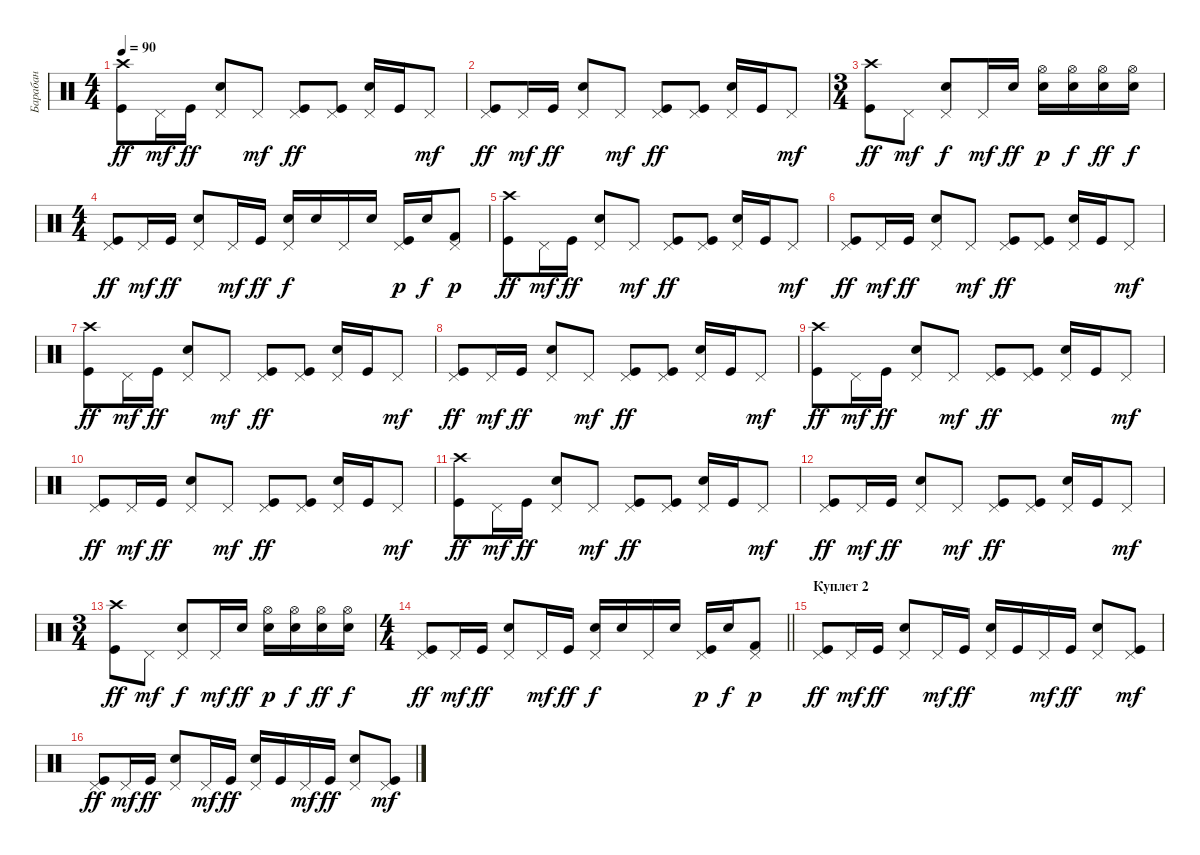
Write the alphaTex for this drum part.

\track ("Барабан" "Барабан") {instrument percussion}
\staff {score}
\articulation defaults
\ts (4 4)
\tempo 90
\clef neutral
\ks c
("Crash high (hit)" "Kick (hit)").8{dy ff} "Pedal Hi-Hat (hit)".16{dy mf} "Kick (hit)".16{dy ff} ("Pedal Hi-Hat (hit)" "Snare (hit) 2").8 "Pedal Hi-Hat (hit)".8{dy mf} ("Pedal Hi-Hat (hit)" "Kick (hit)").8{dy ff} ("Pedal Hi-Hat (hit)" "Kick (hit)").8 ("Pedal Hi-Hat (hit)" "Snare (hit) 2").16 "Kick (hit)".16 "Pedal Hi-Hat (hit)".8{dy mf} |
("Pedal Hi-Hat (hit)" "Kick (hit)").8{dy ff} "Pedal Hi-Hat (hit)".16{dy mf} "Kick (hit)".16{dy ff} ("Pedal Hi-Hat (hit)" "Snare (hit) 2").8 "Pedal Hi-Hat (hit)".8{dy mf} ("Pedal Hi-Hat (hit)" "Kick (hit)").8{dy ff} ("Pedal Hi-Hat (hit)" "Kick (hit)").8 ("Pedal Hi-Hat (hit)" "Snare (hit) 2").16 "Kick (hit)".16 "Pedal Hi-Hat (hit)".8{dy mf} |
\ts (3 4)
("Crash high (hit)" "Kick (hit)").8{dy ff} "Pedal Hi-Hat (hit)".8{dy mf} ("Pedal Hi-Hat (hit)" "Snare (hit) 2").8{dy f} "Pedal Hi-Hat (hit)".16{dy mf} "Snare (hit) 2".16{dy ff} ("Hi-Hat (open)" "Snare (hit) 2").16{dy p} ("Hi-Hat (open)" "Snare (hit) 2").16{dy f} ("Hi-Hat (open)" "Snare (hit) 2").16{dy ff} ("Hi-Hat (open)" "Snare (hit) 2").16{dy f} |
\ts (4 4)
("Pedal Hi-Hat (hit)" "Kick (hit)").8{dy ff} "Pedal Hi-Hat (hit)".16{dy mf} "Kick (hit)".16{dy ff} ("Pedal Hi-Hat (hit)" "Snare (hit) 2").8 "Pedal Hi-Hat (hit)".16{dy mf} "Kick (hit)".16{dy ff} ("Pedal Hi-Hat (hit)" "Snare (hit) 2").16{dy f} "Snare (hit) 2".16 "Pedal Hi-Hat (hit)".16 "Snare (hit) 2".16 ("Pedal Hi-Hat (hit)" "Kick (hit)").16{dy p} "Snare (hit) 2".16{dy f} ("Pedal Hi-Hat (hit)" "Kick (hit) 2").8{dy p} |
("Crash high (hit)" "Kick (hit)").8{dy ff} "Pedal Hi-Hat (hit)".16{dy mf} "Kick (hit)".16{dy ff} ("Pedal Hi-Hat (hit)" "Snare (hit) 2").8 "Pedal Hi-Hat (hit)".8{dy mf} ("Pedal Hi-Hat (hit)" "Kick (hit)").8{dy ff} ("Pedal Hi-Hat (hit)" "Kick (hit)").8 ("Pedal Hi-Hat (hit)" "Snare (hit) 2").16 "Kick (hit)".16 "Pedal Hi-Hat (hit)".8{dy mf} |
("Pedal Hi-Hat (hit)" "Kick (hit)").8{dy ff} "Pedal Hi-Hat (hit)".16{dy mf} "Kick (hit)".16{dy ff} ("Pedal Hi-Hat (hit)" "Snare (hit) 2").8 "Pedal Hi-Hat (hit)".8{dy mf} ("Pedal Hi-Hat (hit)" "Kick (hit)").8{dy ff} ("Pedal Hi-Hat (hit)" "Kick (hit)").8 ("Pedal Hi-Hat (hit)" "Snare (hit) 2").16 "Kick (hit)".16 "Pedal Hi-Hat (hit)".8{dy mf} |
("Crash high (hit)" "Kick (hit)").8{dy ff} "Pedal Hi-Hat (hit)".16{dy mf} "Kick (hit)".16{dy ff} ("Pedal Hi-Hat (hit)" "Snare (hit) 2").8 "Pedal Hi-Hat (hit)".8{dy mf} ("Pedal Hi-Hat (hit)" "Kick (hit)").8{dy ff} ("Pedal Hi-Hat (hit)" "Kick (hit)").8 ("Pedal Hi-Hat (hit)" "Snare (hit) 2").16 "Kick (hit)".16 "Pedal Hi-Hat (hit)".8{dy mf} |
("Pedal Hi-Hat (hit)" "Kick (hit)").8{dy ff} "Pedal Hi-Hat (hit)".16{dy mf} "Kick (hit)".16{dy ff} ("Pedal Hi-Hat (hit)" "Snare (hit) 2").8 "Pedal Hi-Hat (hit)".8{dy mf} ("Pedal Hi-Hat (hit)" "Kick (hit)").8{dy ff} ("Pedal Hi-Hat (hit)" "Kick (hit)").8 ("Pedal Hi-Hat (hit)" "Snare (hit) 2").16 "Kick (hit)".16 "Pedal Hi-Hat (hit)".8{dy mf} |
("Crash high (hit)" "Kick (hit)").8{dy ff} "Pedal Hi-Hat (hit)".16{dy mf} "Kick (hit)".16{dy ff} ("Pedal Hi-Hat (hit)" "Snare (hit) 2").8 "Pedal Hi-Hat (hit)".8{dy mf} ("Pedal Hi-Hat (hit)" "Kick (hit)").8{dy ff} ("Pedal Hi-Hat (hit)" "Kick (hit)").8 ("Pedal Hi-Hat (hit)" "Snare (hit) 2").16 "Kick (hit)".16 "Pedal Hi-Hat (hit)".8{dy mf} |
("Pedal Hi-Hat (hit)" "Kick (hit)").8{dy ff} "Pedal Hi-Hat (hit)".16{dy mf} "Kick (hit)".16{dy ff} ("Pedal Hi-Hat (hit)" "Snare (hit) 2").8 "Pedal Hi-Hat (hit)".8{dy mf} ("Pedal Hi-Hat (hit)" "Kick (hit)").8{dy ff} ("Pedal Hi-Hat (hit)" "Kick (hit)").8 ("Pedal Hi-Hat (hit)" "Snare (hit) 2").16 "Kick (hit)".16 "Pedal Hi-Hat (hit)".8{dy mf} |
("Crash high (hit)" "Kick (hit)").8{dy ff} "Pedal Hi-Hat (hit)".16{dy mf} "Kick (hit)".16{dy ff} ("Pedal Hi-Hat (hit)" "Snare (hit) 2").8 "Pedal Hi-Hat (hit)".8{dy mf} ("Pedal Hi-Hat (hit)" "Kick (hit)").8{dy ff} ("Pedal Hi-Hat (hit)" "Kick (hit)").8 ("Pedal Hi-Hat (hit)" "Snare (hit) 2").16 "Kick (hit)".16 "Pedal Hi-Hat (hit)".8{dy mf} |
("Pedal Hi-Hat (hit)" "Kick (hit)").8{dy ff} "Pedal Hi-Hat (hit)".16{dy mf} "Kick (hit)".16{dy ff} ("Pedal Hi-Hat (hit)" "Snare (hit) 2").8 "Pedal Hi-Hat (hit)".8{dy mf} ("Pedal Hi-Hat (hit)" "Kick (hit)").8{dy ff} ("Pedal Hi-Hat (hit)" "Kick (hit)").8 ("Pedal Hi-Hat (hit)" "Snare (hit) 2").16 "Kick (hit)".16 "Pedal Hi-Hat (hit)".8{dy mf} |
\ts (3 4)
("Crash high (hit)" "Kick (hit)").8{dy ff} "Pedal Hi-Hat (hit)".8{dy mf} ("Pedal Hi-Hat (hit)" "Snare (hit) 2").8{dy f} "Pedal Hi-Hat (hit)".16{dy mf} "Snare (hit) 2".16{dy ff} ("Hi-Hat (open)" "Snare (hit) 2").16{dy p} ("Hi-Hat (open)" "Snare (hit) 2").16{dy f} ("Hi-Hat (open)" "Snare (hit) 2").16{dy ff} ("Hi-Hat (open)" "Snare (hit) 2").16{dy f} |
\ts (4 4)
\barLineRight lightlight
("Pedal Hi-Hat (hit)" "Kick (hit)").8{dy ff} "Pedal Hi-Hat (hit)".16{dy mf} "Kick (hit)".16{dy ff} ("Pedal Hi-Hat (hit)" "Snare (hit) 2").8 "Pedal Hi-Hat (hit)".16{dy mf} "Kick (hit)".16{dy ff} ("Pedal Hi-Hat (hit)" "Snare (hit) 2").16{dy f} "Snare (hit) 2".16 "Pedal Hi-Hat (hit)".16 "Snare (hit) 2".16 ("Pedal Hi-Hat (hit)" "Kick (hit)").16{dy p} "Snare (hit) 2".16{dy f} ("Pedal Hi-Hat (hit)" "Kick (hit) 2").8{dy p} |
\section ("" "Куплет 2")
("Pedal Hi-Hat (hit)" "Kick (hit)").8{dy ff} "Pedal Hi-Hat (hit)".16{dy mf} "Kick (hit)".16{dy ff} ("Pedal Hi-Hat (hit)" "Snare (hit) 2").8 "Pedal Hi-Hat (hit)".16{dy mf} "Kick (hit)".16{dy ff} ("Pedal Hi-Hat (hit)" "Snare (hit) 2").16 "Kick (hit)".16 "Pedal Hi-Hat (hit)".16{dy mf} "Kick (hit)".16{dy ff} ("Pedal Hi-Hat (hit)" "Snare (hit) 2").8 ("Pedal Hi-Hat (hit)" "Kick (hit)").8{dy mf} |
("Pedal Hi-Hat (hit)" "Kick (hit)").8{dy ff} "Pedal Hi-Hat (hit)".16{dy mf} "Kick (hit)".16{dy ff} ("Pedal Hi-Hat (hit)" "Snare (hit) 2").8 "Pedal Hi-Hat (hit)".16{dy mf} "Kick (hit)".16{dy ff} ("Pedal Hi-Hat (hit)" "Snare (hit) 2").16 "Kick (hit)".16 "Pedal Hi-Hat (hit)".16{dy mf} "Kick (hit)".16{dy ff} ("Pedal Hi-Hat (hit)" "Snare (hit) 2").8 ("Pedal Hi-Hat (hit)" "Kick (hit)").8{dy mf}
